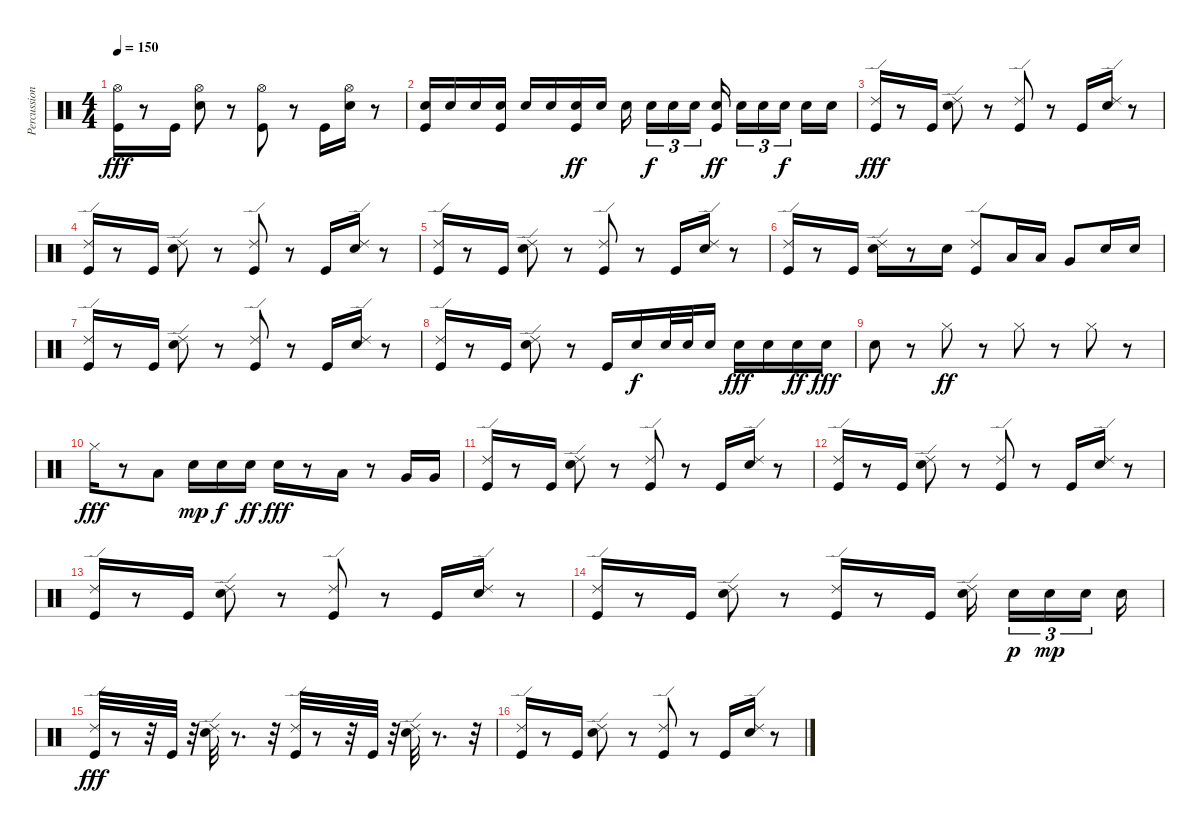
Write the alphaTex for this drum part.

\track ("Percussion" "Percussion") {instrument percussion}
\staff {score}
\articulation defaults
\ts (4 4)
\tempo 150
\clef neutral
\ks c
("Kick (hit)" "Hi-Hat (open)").16{dy fff} r.8 "Kick (hit)".16 ("Electric Snare (hit)" "Hi-Hat (open)").8 r.8 ("Kick (hit)" "Hi-Hat (open)").8 r.8 "Kick (hit)".16 ("Electric Snare (hit)" "Hi-Hat (open)").16 r.8 |
("Kick (hit)" "Electric Snare (hit)").16 "Electric Snare (hit)".16 "Electric Snare (hit)".16 ("Kick (hit)" "Electric Snare (hit)").16 "Electric Snare (hit)".16 "Electric Snare (hit)".16 ("Kick (hit)" "Electric Snare (hit)").16{dy ff} "Electric Snare (hit)".16 "Electric Snare (hit)".16 "Electric Snare (hit)".16{tu (3 2) dy f} "Electric Snare (hit)".16{tu (3 2)} "Electric Snare (hit)".16{tu (3 2)} ("Kick (hit)" "Electric Snare (hit)").16{dy ff} "Electric Snare (hit)".16{tu (3 2)} "Electric Snare (hit)".16{tu (3 2)} "Electric Snare (hit)".16{tu (3 2) dy f} "Electric Snare (hit)".16 "Electric Snare (hit)".16 |
("Kick (hit)" "Ride (edge) 2").16{dy fff} r.8 "Kick (hit)".16 ("Electric Snare (hit)" "Ride (edge) 2").8 r.8 ("Kick (hit)" "Ride (edge) 2").8 r.8 "Kick (hit)".16 ("Electric Snare (hit)" "Ride (edge) 2").16 r.8 |
("Kick (hit)" "Ride (edge) 2").16 r.8 "Kick (hit)".16 ("Electric Snare (hit)" "Ride (edge) 2").8 r.8 ("Kick (hit)" "Ride (edge) 2").8 r.8 "Kick (hit)".16 ("Electric Snare (hit)" "Ride (edge) 2").16 r.8 |
("Kick (hit)" "Ride (edge) 2").16 r.8 "Kick (hit)".16 ("Electric Snare (hit)" "Ride (edge) 2").8 r.8 ("Kick (hit)" "Ride (edge) 2").8 r.8 "Kick (hit)".16 ("Electric Snare (hit)" "Ride (edge) 2").16 r.8 |
("Ride (edge) 2" "Kick (hit)").16 r.8 "Kick (hit)".16 ("Ride (edge) 2" "Electric Snare (hit)").16 r.8 "Electric Snare (hit)".16 ("Kick (hit)" "Ride (edge) 2").8 "Low Tom (hit)".16 "Low Tom (hit)".16 "Very Low Tom (hit)".8 "Electric Snare (hit)".16 "Electric Snare (hit)".16 |
("Kick (hit)" "Ride (edge) 2").16 r.8 "Kick (hit)".16 ("Electric Snare (hit)" "Ride (edge) 2").8 r.8 ("Kick (hit)" "Ride (edge) 2").8 r.8 "Kick (hit)".16 ("Electric Snare (hit)" "Ride (edge) 2").16 r.8 |
("Ride (edge) 2" "Kick (hit)").16 r.8 "Kick (hit)".16 ("Ride (edge) 2" "Electric Snare (hit)").8 r.8 "Kick (hit)".16 "Electric Snare (hit)".16{dy f} "Electric Snare (hit)".32 "Electric Snare (hit)".32 "Electric Snare (hit)".16 "Electric Snare (hit)".16{dy fff} "Electric Snare (hit)".16 "Electric Snare (hit)".16{dy ff} "Electric Snare (hit)".16{dy fff} |
"Electric Snare (hit)".8 r.8 "Hi-Hat (closed)".8{dy ff} r.8 "Hi-Hat (closed)".8 r.8 "Hi-Hat (closed)".8 r.8 |
"Hi-Hat (closed)".16{dy fff} r.8 "Low Tom (hit)".8 "Electric Snare (hit)".16{dy mp} "Electric Snare (hit)".16{dy f} "Electric Snare (hit)".16{dy ff} "Electric Snare (hit)".16{dy fff} r.8 "Low Tom (hit)".16 r.8 "Very Low Tom (hit)".16 "Very Low Tom (hit)".16 |
("Kick (hit)" "Ride (edge) 2").16 r.8 "Kick (hit)".16 ("Electric Snare (hit)" "Ride (edge) 2").8 r.8 ("Kick (hit)" "Ride (edge) 2").8 r.8 "Kick (hit)".16 ("Electric Snare (hit)" "Ride (edge) 2").16 r.8 |
("Kick (hit)" "Ride (edge) 2").16 r.8 "Kick (hit)".16 ("Electric Snare (hit)" "Ride (edge) 2").8 r.8 ("Kick (hit)" "Ride (edge) 2").8 r.8 "Kick (hit)".16 ("Electric Snare (hit)" "Ride (edge) 2").16 r.8 |
("Kick (hit)" "Ride (edge) 2").16 r.8 "Kick (hit)".16 ("Electric Snare (hit)" "Ride (edge) 2").8 r.8 ("Kick (hit)" "Ride (edge) 2").8 r.8 "Kick (hit)".16 ("Electric Snare (hit)" "Ride (edge) 2").16 r.8 |
("Kick (hit)" "Ride (edge) 2").16 r.8 "Kick (hit)".16 ("Electric Snare (hit)" "Ride (edge) 2").8 r.8 ("Kick (hit)" "Ride (edge) 2").16 r.8 "Kick (hit)".16 ("Ride (edge) 2" "Electric Snare (hit)").16 "Electric Snare (hit)".16{tu (3 2) dy p} "Electric Snare (hit)".16{tu (3 2) dy mp} "Electric Snare (hit)".16{tu (3 2)} "Electric Snare (hit)".16 |
("Ride (edge) 2" "Kick (hit)").32{dy fff} r.8 r.32 "Kick (hit)".32 r.32 ("Ride (edge) 2" "Electric Snare (hit)").32 r.8{d} r.32 ("Kick (hit)" "Ride (edge) 2").32 r.8 r.32 "Kick (hit)".32 r.32 ("Ride (edge) 2" "Electric Snare (hit)").32 r.8{d} r.32 |
("Kick (hit)" "Ride (edge) 2").16 r.8 "Kick (hit)".16 ("Ride (edge) 2" "Electric Snare (hit)").8 r.8 ("Kick (hit)" "Ride (edge) 2").8 r.8 "Kick (hit)".16 ("Ride (edge) 2" "Electric Snare (hit)").16 r.8
